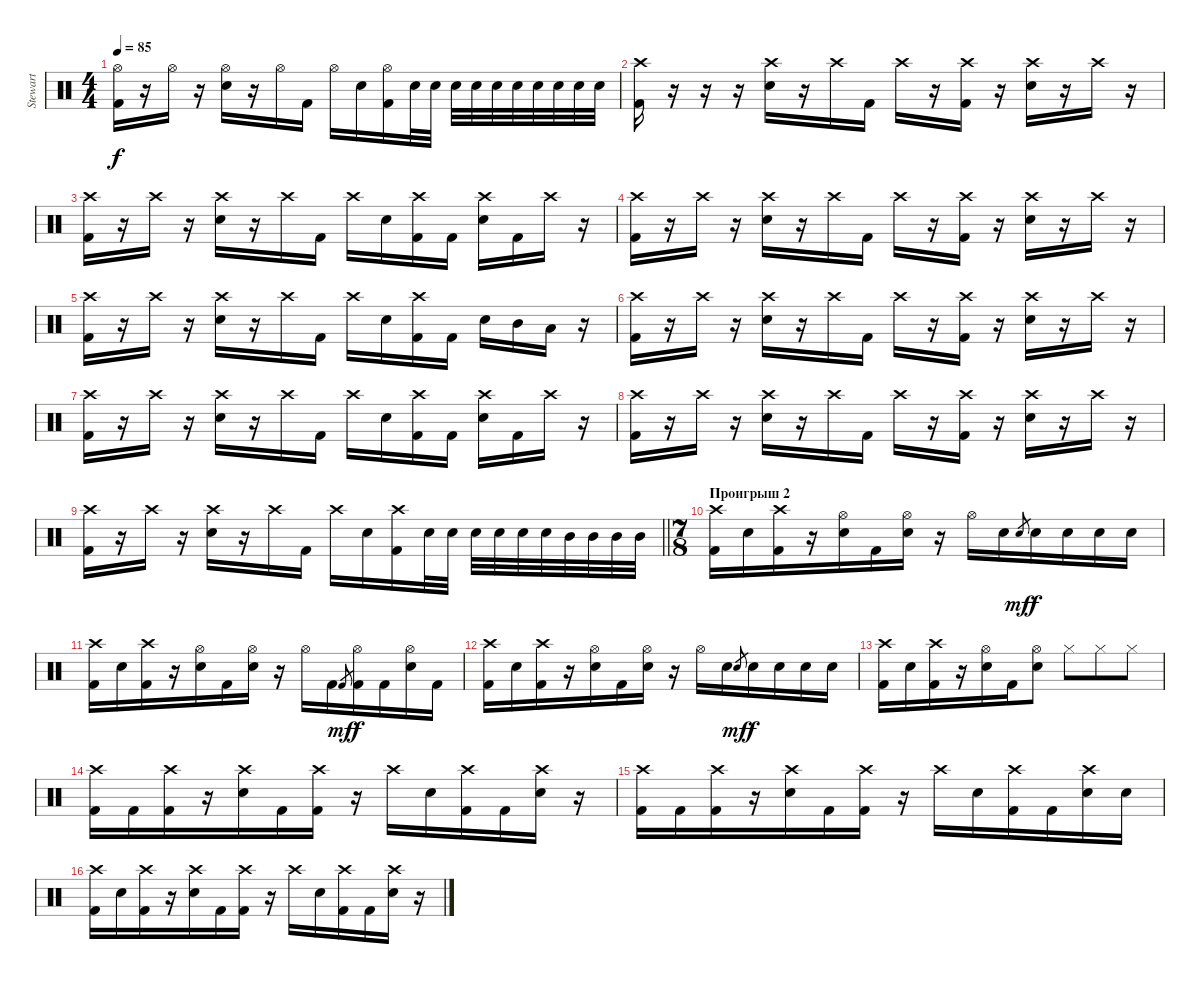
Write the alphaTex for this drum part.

\track ("Stewart" "Stewart") {instrument percussion}
\staff {score}
\articulation defaults
\ts (4 4)
\tempo 85
\clef neutral
\ks c
("Hi-Hat (open)" "Kick (hit) 2").16{dy f} r.16 "Hi-Hat (open)".16 r.16 ("Hi-Hat (open)" "Electric Snare (hit)").16 r.16 "Hi-Hat (open)".16 "Kick (hit) 2".16 "Hi-Hat (open)".16 "Electric Snare (hit)".16 ("Hi-Hat (open)" "Kick (hit) 2").16 "Electric Snare (hit)".32 "Electric Snare (hit)".32 "Electric Snare (hit)".32 "Electric Snare (hit)".32 "Electric Snare (hit)".32 "Electric Snare (hit)".32 "Electric Snare (hit)".32 "Electric Snare (hit)".32 "Electric Snare (hit)".32 "Electric Snare (hit)".32 |
("Crash high (hit)" "Kick (hit) 2").16 r.16 r.16 r.16 ("Crash high (hit)" "Electric Snare (hit)").16 r.16 "Crash high (hit)".16 "Kick (hit) 2".16 "Crash high (hit)".16 r.16 ("Crash high (hit)" "Kick (hit) 2").16 r.16 ("Crash high (hit)" "Electric Snare (hit)").16 r.16 "Crash high (hit)".16 r.16 |
("Crash high (hit)" "Kick (hit) 2").16 r.16 "Crash high (hit)".16 r.16 ("Crash high (hit)" "Electric Snare (hit)").16 r.16 "Crash high (hit)".16 "Kick (hit) 2".16 "Crash high (hit)".16 "Electric Snare (hit)".16 ("Crash high (hit)" "Kick (hit) 2").16 "Kick (hit) 2".16 ("Crash high (hit)" "Electric Snare (hit)").16 "Kick (hit) 2".16 "Crash high (hit)".16 r.16 |
("Crash high (hit)" "Kick (hit) 2").16 r.16 "Crash high (hit)".16 r.16 ("Crash high (hit)" "Electric Snare (hit)").16 r.16 "Crash high (hit)".16 "Kick (hit) 2".16 "Crash high (hit)".16 r.16 ("Crash high (hit)" "Kick (hit) 2").16 r.16 ("Crash high (hit)" "Electric Snare (hit)").16 r.16 "Crash high (hit)".16 r.16 |
("Crash high (hit)" "Kick (hit) 2").16 r.16 "Crash high (hit)".16 r.16 ("Crash high (hit)" "Electric Snare (hit)").16 r.16 "Crash high (hit)".16 "Kick (hit) 2".16 "Crash high (hit)".16 "Electric Snare (hit)".16 ("Crash high (hit)" "Kick (hit) 2").16 "Kick (hit) 2".16 "Electric Snare (hit)".16 "Mid Tom (hit)".16 "Low Tom (hit)".16 r.16 |
("Crash high (hit)" "Kick (hit) 2").16 r.16 "Crash high (hit)".16 r.16 ("Crash high (hit)" "Electric Snare (hit)").16 r.16 "Crash high (hit)".16 "Kick (hit) 2".16 "Crash high (hit)".16 r.16 ("Crash high (hit)" "Kick (hit) 2").16 r.16 ("Crash high (hit)" "Electric Snare (hit)").16 r.16 "Crash high (hit)".16 r.16 |
("Crash high (hit)" "Kick (hit) 2").16 r.16 "Crash high (hit)".16 r.16 ("Crash high (hit)" "Electric Snare (hit)").16 r.16 "Crash high (hit)".16 "Kick (hit) 2".16 "Crash high (hit)".16 "Electric Snare (hit)".16 ("Crash high (hit)" "Kick (hit) 2").16 "Kick (hit) 2".16 ("Crash high (hit)" "Electric Snare (hit)").16 "Kick (hit) 2".16 "Crash high (hit)".16 r.16 |
("Crash high (hit)" "Kick (hit) 2").16 r.16 "Crash high (hit)".16 r.16 ("Crash high (hit)" "Electric Snare (hit)").16 r.16 "Crash high (hit)".16 "Kick (hit) 2".16 "Crash high (hit)".16 r.16 ("Crash high (hit)" "Kick (hit) 2").16 r.16 ("Crash high (hit)" "Electric Snare (hit)").16 r.16 "Crash high (hit)".16 r.16 |
\barLineRight lightlight
("Crash high (hit)" "Kick (hit) 2").16 r.16 "Crash high (hit)".16 r.16 ("Crash high (hit)" "Electric Snare (hit)").16 r.16 "Crash high (hit)".16 "Kick (hit) 2".16 "Crash high (hit)".16 "Electric Snare (hit)".16 ("Crash high (hit)" "Kick (hit) 2").16 "Electric Snare (hit)".32 "Electric Snare (hit)".32 "Electric Snare (hit)".32 "Electric Snare (hit)".32 "Electric Snare (hit)".32 "Electric Snare (hit)".32 "Mid Tom (hit)".32 "Mid Tom (hit)".32 "Mid Tom (hit)".32 "Mid Tom (hit)".32 |
\ts (7 8)
\section ("" "Проигрыш 2")
("Crash high (hit)" "Kick (hit) 2").16 "Electric Snare (hit)".16 ("Crash high (hit)" "Kick (hit) 2").16 r.16 ("Hi-Hat (open)" "Electric Snare (hit)").16 "Kick (hit) 2".16 ("Hi-Hat (open)" "Electric Snare (hit)").16 r.16 "Hi-Hat (open)".16 "Electric Snare (hit)".16 "Electric Snare (hit)".8{gr dy mf} "Electric Snare (hit)".16{dy f} "Electric Snare (hit)".16 "Electric Snare (hit)".16 "Electric Snare (hit)".16 |
("Crash high (hit)" "Kick (hit) 2").16 "Electric Snare (hit)".16 ("Crash high (hit)" "Kick (hit) 2").16 r.16 ("Hi-Hat (open)" "Electric Snare (hit)").16 "Kick (hit) 2".16 ("Hi-Hat (open)" "Electric Snare (hit)").16 r.16 "Hi-Hat (open)".16 "Kick (hit) 2".16 "Kick (hit) 2".8{gr dy mf} ("Hi-Hat (open)" "Kick (hit) 2").16{dy f} "Kick (hit) 2".16 ("Hi-Hat (open)" "Electric Snare (hit)").16 "Kick (hit) 2".16 |
("Crash high (hit)" "Kick (hit) 2").16 "Electric Snare (hit)".16 ("Crash high (hit)" "Kick (hit) 2").16 r.16 ("Hi-Hat (open)" "Electric Snare (hit)").16 "Kick (hit) 2".16 ("Hi-Hat (open)" "Electric Snare (hit)").16 r.16 "Hi-Hat (open)".16 "Electric Snare (hit)".16 "Electric Snare (hit)".8{gr dy mf} "Electric Snare (hit)".16{dy f} "Electric Snare (hit)".16 "Electric Snare (hit)".16 "Electric Snare (hit)".16 |
("Crash high (hit)" "Kick (hit) 2").16 "Electric Snare (hit)".16 ("Crash high (hit)" "Kick (hit) 2").16 r.16 ("Hi-Hat (open)" "Electric Snare (hit)").16 "Kick (hit) 2".16 ("Hi-Hat (open)" "Electric Snare (hit)").8 "Hi-Hat (closed)".8 "Hi-Hat (closed)".8 "Hi-Hat (closed)".8 |
("Crash high (hit)" "Kick (hit) 2").16 "Kick (hit) 2".16 ("Crash high (hit)" "Kick (hit) 2").16 r.16 ("Crash high (hit)" "Electric Snare (hit)").16 "Kick (hit) 2".16 ("Crash high (hit)" "Kick (hit) 2").16 r.16 "Crash high (hit)".16 "Electric Snare (hit)".16 ("Crash high (hit)" "Kick (hit) 2").16 "Kick (hit) 2".16 ("Crash high (hit)" "Electric Snare (hit)").16 r.16 |
("Crash high (hit)" "Kick (hit) 2").16 "Kick (hit) 2".16 ("Crash high (hit)" "Kick (hit) 2").16 r.16 ("Crash high (hit)" "Electric Snare (hit)").16 "Kick (hit) 2".16 ("Crash high (hit)" "Kick (hit) 2").16 r.16 "Crash high (hit)".16 "Electric Snare (hit)".16 ("Crash high (hit)" "Kick (hit) 2").16 "Kick (hit) 2".16 ("Crash high (hit)" "Electric Snare (hit)").16 "Electric Snare (hit)".16 |
("Crash high (hit)" "Kick (hit) 2").16 "Electric Snare (hit)".16 ("Crash high (hit)" "Kick (hit) 2").16 r.16 ("Crash high (hit)" "Electric Snare (hit)").16 "Kick (hit) 2".16 ("Crash high (hit)" "Kick (hit) 2").16 r.16 "Crash high (hit)".16 "Electric Snare (hit)".16 ("Crash high (hit)" "Kick (hit) 2").16 "Kick (hit) 2".16 ("Crash high (hit)" "Electric Snare (hit)").16 r.16
